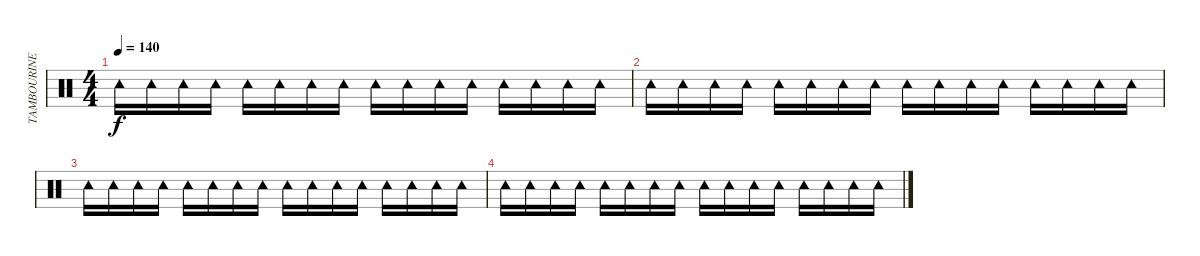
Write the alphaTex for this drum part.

\track ("TAMBOURINE" "TAMBOURINE") {instrument percussion}
\staff {score}
\articulation defaults
\ts (4 4)
\tempo 140
\clef neutral
\ks c "Tambourine (hit)".16{dy f} "Tambourine (hit)".16 "Tambourine (hit)".16 "Tambourine (hit)".16 "Tambourine (hit)".16 "Tambourine (hit)".16 "Tambourine (hit)".16 "Tambourine (hit)".16 "Tambourine (hit)".16 "Tambourine (hit)".16 "Tambourine (hit)".16 "Tambourine (hit)".16 "Tambourine (hit)".16 "Tambourine (hit)".16 "Tambourine (hit)".16 "Tambourine (hit)".16
|
"Tambourine (hit)".16 "Tambourine (hit)".16 "Tambourine (hit)".16 "Tambourine (hit)".16 "Tambourine (hit)".16 "Tambourine (hit)".16 "Tambourine (hit)".16 "Tambourine (hit)".16 "Tambourine (hit)".16 "Tambourine (hit)".16 "Tambourine (hit)".16 "Tambourine (hit)".16 "Tambourine (hit)".16 "Tambourine (hit)".16 "Tambourine (hit)".16 "Tambourine (hit)".16 |
"Tambourine (hit)".16 "Tambourine (hit)".16 "Tambourine (hit)".16 "Tambourine (hit)".16 "Tambourine (hit)".16 "Tambourine (hit)".16 "Tambourine (hit)".16 "Tambourine (hit)".16 "Tambourine (hit)".16 "Tambourine (hit)".16 "Tambourine (hit)".16 "Tambourine (hit)".16 "Tambourine (hit)".16 "Tambourine (hit)".16 "Tambourine (hit)".16 "Tambourine (hit)".16 |
"Tambourine (hit)".16 "Tambourine (hit)".16 "Tambourine (hit)".16 "Tambourine (hit)".16 "Tambourine (hit)".16 "Tambourine (hit)".16 "Tambourine (hit)".16 "Tambourine (hit)".16 "Tambourine (hit)".16 "Tambourine (hit)".16 "Tambourine (hit)".16 "Tambourine (hit)".16 "Tambourine (hit)".16 "Tambourine (hit)".16 "Tambourine (hit)".16 "Tambourine (hit)".16
